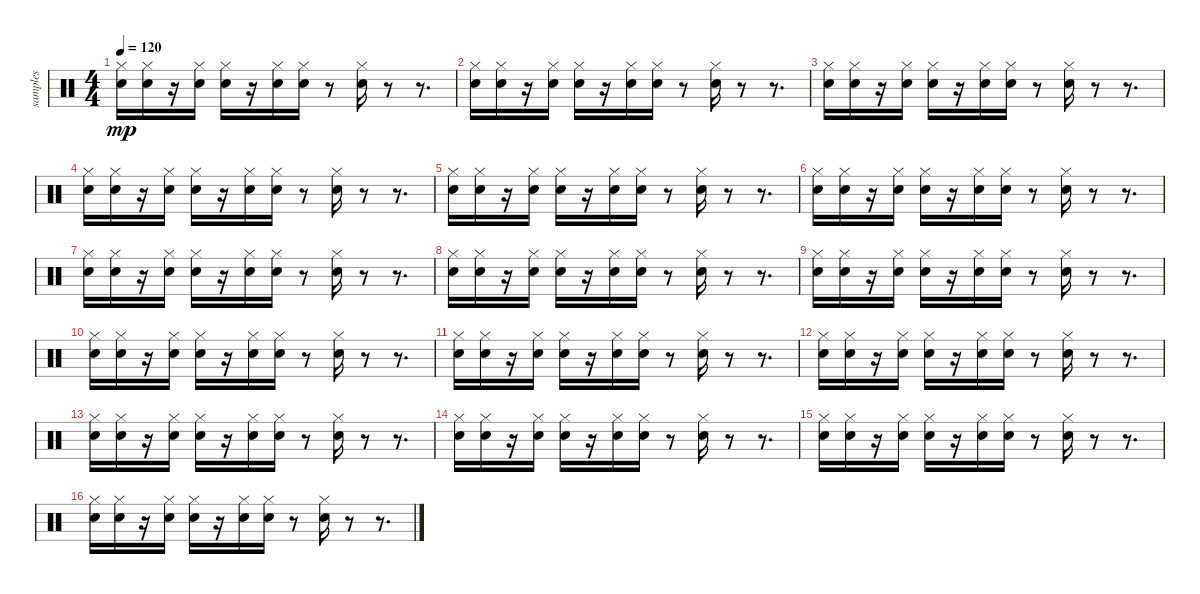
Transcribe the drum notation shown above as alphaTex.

\track ("samples" "samples") {instrument percussion}
\staff {score}
\articulation defaults
\ts (4 4)
\tempo 120
\clef neutral
\ks c
("Hi-Hat (closed)" "Snare (hit) 2").16{dy mp} ("Hi-Hat (closed)" "Snare (hit) 2").16 r.16 ("Hi-Hat (closed)" "Snare (hit) 2").16 ("Hi-Hat (closed)" "Snare (hit) 2").16 r.16 ("Hi-Hat (closed)" "Snare (hit) 2").16 ("Hi-Hat (closed)" "Snare (hit) 2").16 r.8 ("Hi-Hat (closed)" "Snare (hit) 2").16 r.8 r.8{d} |
("Hi-Hat (closed)" "Snare (hit) 2").16 ("Hi-Hat (closed)" "Snare (hit) 2").16 r.16 ("Hi-Hat (closed)" "Snare (hit) 2").16 ("Hi-Hat (closed)" "Snare (hit) 2").16 r.16 ("Hi-Hat (closed)" "Snare (hit) 2").16 ("Hi-Hat (closed)" "Snare (hit) 2").16 r.8 ("Hi-Hat (closed)" "Snare (hit) 2").16 r.8 r.8{d} |
("Hi-Hat (closed)" "Snare (hit) 2").16 ("Hi-Hat (closed)" "Snare (hit) 2").16 r.16 ("Hi-Hat (closed)" "Snare (hit) 2").16 ("Hi-Hat (closed)" "Snare (hit) 2").16 r.16 ("Hi-Hat (closed)" "Snare (hit) 2").16 ("Hi-Hat (closed)" "Snare (hit) 2").16 r.8 ("Hi-Hat (closed)" "Snare (hit) 2").16 r.8 r.8{d} |
("Hi-Hat (closed)" "Snare (hit) 2").16 ("Hi-Hat (closed)" "Snare (hit) 2").16 r.16 ("Hi-Hat (closed)" "Snare (hit) 2").16 ("Hi-Hat (closed)" "Snare (hit) 2").16 r.16 ("Hi-Hat (closed)" "Snare (hit) 2").16 ("Hi-Hat (closed)" "Snare (hit) 2").16 r.8 ("Hi-Hat (closed)" "Snare (hit) 2").16 r.8 r.8{d} |
("Hi-Hat (closed)" "Snare (hit) 2").16 ("Hi-Hat (closed)" "Snare (hit) 2").16 r.16 ("Hi-Hat (closed)" "Snare (hit) 2").16 ("Hi-Hat (closed)" "Snare (hit) 2").16 r.16 ("Hi-Hat (closed)" "Snare (hit) 2").16 ("Hi-Hat (closed)" "Snare (hit) 2").16 r.8 ("Hi-Hat (closed)" "Snare (hit) 2").16 r.8 r.8{d} |
("Hi-Hat (closed)" "Snare (hit) 2").16 ("Hi-Hat (closed)" "Snare (hit) 2").16 r.16 ("Hi-Hat (closed)" "Snare (hit) 2").16 ("Hi-Hat (closed)" "Snare (hit) 2").16 r.16 ("Hi-Hat (closed)" "Snare (hit) 2").16 ("Hi-Hat (closed)" "Snare (hit) 2").16 r.8 ("Hi-Hat (closed)" "Snare (hit) 2").16 r.8 r.8{d} |
("Hi-Hat (closed)" "Snare (hit) 2").16 ("Hi-Hat (closed)" "Snare (hit) 2").16 r.16 ("Hi-Hat (closed)" "Snare (hit) 2").16 ("Hi-Hat (closed)" "Snare (hit) 2").16 r.16 ("Hi-Hat (closed)" "Snare (hit) 2").16 ("Hi-Hat (closed)" "Snare (hit) 2").16 r.8 ("Hi-Hat (closed)" "Snare (hit) 2").16 r.8 r.8{d} |
("Hi-Hat (closed)" "Snare (hit) 2").16 ("Hi-Hat (closed)" "Snare (hit) 2").16 r.16 ("Hi-Hat (closed)" "Snare (hit) 2").16 ("Hi-Hat (closed)" "Snare (hit) 2").16 r.16 ("Hi-Hat (closed)" "Snare (hit) 2").16 ("Hi-Hat (closed)" "Snare (hit) 2").16 r.8 ("Hi-Hat (closed)" "Snare (hit) 2").16 r.8 r.8{d} |
("Hi-Hat (closed)" "Snare (hit) 2").16 ("Hi-Hat (closed)" "Snare (hit) 2").16 r.16 ("Hi-Hat (closed)" "Snare (hit) 2").16 ("Hi-Hat (closed)" "Snare (hit) 2").16 r.16 ("Hi-Hat (closed)" "Snare (hit) 2").16 ("Hi-Hat (closed)" "Snare (hit) 2").16 r.8 ("Hi-Hat (closed)" "Snare (hit) 2").16 r.8 r.8{d} |
("Hi-Hat (closed)" "Snare (hit) 2").16 ("Hi-Hat (closed)" "Snare (hit) 2").16 r.16 ("Hi-Hat (closed)" "Snare (hit) 2").16 ("Hi-Hat (closed)" "Snare (hit) 2").16 r.16 ("Hi-Hat (closed)" "Snare (hit) 2").16 ("Hi-Hat (closed)" "Snare (hit) 2").16 r.8 ("Hi-Hat (closed)" "Snare (hit) 2").16 r.8 r.8{d} |
("Hi-Hat (closed)" "Snare (hit) 2").16 ("Hi-Hat (closed)" "Snare (hit) 2").16 r.16 ("Hi-Hat (closed)" "Snare (hit) 2").16 ("Hi-Hat (closed)" "Snare (hit) 2").16 r.16 ("Hi-Hat (closed)" "Snare (hit) 2").16 ("Hi-Hat (closed)" "Snare (hit) 2").16 r.8 ("Hi-Hat (closed)" "Snare (hit) 2").16 r.8 r.8{d} |
("Hi-Hat (closed)" "Snare (hit) 2").16 ("Hi-Hat (closed)" "Snare (hit) 2").16 r.16 ("Hi-Hat (closed)" "Snare (hit) 2").16 ("Hi-Hat (closed)" "Snare (hit) 2").16 r.16 ("Hi-Hat (closed)" "Snare (hit) 2").16 ("Hi-Hat (closed)" "Snare (hit) 2").16 r.8 ("Hi-Hat (closed)" "Snare (hit) 2").16 r.8 r.8{d} |
("Hi-Hat (closed)" "Snare (hit) 2").16 ("Hi-Hat (closed)" "Snare (hit) 2").16 r.16 ("Hi-Hat (closed)" "Snare (hit) 2").16 ("Hi-Hat (closed)" "Snare (hit) 2").16 r.16 ("Hi-Hat (closed)" "Snare (hit) 2").16 ("Hi-Hat (closed)" "Snare (hit) 2").16 r.8 ("Hi-Hat (closed)" "Snare (hit) 2").16 r.8 r.8{d} |
("Hi-Hat (closed)" "Snare (hit) 2").16 ("Hi-Hat (closed)" "Snare (hit) 2").16 r.16 ("Hi-Hat (closed)" "Snare (hit) 2").16 ("Hi-Hat (closed)" "Snare (hit) 2").16 r.16 ("Hi-Hat (closed)" "Snare (hit) 2").16 ("Hi-Hat (closed)" "Snare (hit) 2").16 r.8 ("Hi-Hat (closed)" "Snare (hit) 2").16 r.8 r.8{d} |
("Hi-Hat (closed)" "Snare (hit) 2").16 ("Hi-Hat (closed)" "Snare (hit) 2").16 r.16 ("Hi-Hat (closed)" "Snare (hit) 2").16 ("Hi-Hat (closed)" "Snare (hit) 2").16 r.16 ("Hi-Hat (closed)" "Snare (hit) 2").16 ("Hi-Hat (closed)" "Snare (hit) 2").16 r.8 ("Hi-Hat (closed)" "Snare (hit) 2").16 r.8 r.8{d} |
("Hi-Hat (closed)" "Snare (hit) 2").16 ("Hi-Hat (closed)" "Snare (hit) 2").16 r.16 ("Hi-Hat (closed)" "Snare (hit) 2").16 ("Hi-Hat (closed)" "Snare (hit) 2").16 r.16 ("Hi-Hat (closed)" "Snare (hit) 2").16 ("Hi-Hat (closed)" "Snare (hit) 2").16 r.8 ("Hi-Hat (closed)" "Snare (hit) 2").16 r.8 r.8{d}
